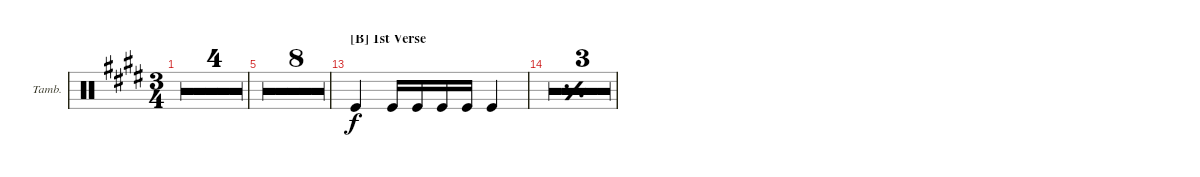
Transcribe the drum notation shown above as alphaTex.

\defaultSystemsLayout 4
\bracketExtendMode groupsimilarinstruments
\firstSystemTrackNameOrientation horizontal
\otherSystemsTrackNameOrientation horizontal
\track ("Tambourine" "Tamb.") {multiBarRest instrument percussion}
\staff {score}
\articulation defaults
\ts (3 4)
\tempo 165
\clef neutral
\simile firstofdouble
\ks e
|
\simile secondofdouble
|
\simile firstofdouble
|
\simile secondofdouble
|
\tempo 162
\simile firstofdouble
|
\simile secondofdouble
|
\simile firstofdouble
|
\simile secondofdouble
|
\simile firstofdouble
|
\simile secondofdouble
|
\simile firstofdouble
|
\simile secondofdouble
|
\section ("B" "1st Verse")
\simile none "Kick (hit)".4 "Kick (hit)".16 "Kick (hit)".16 "Kick (hit)".16 "Kick (hit)".16 "Kick (hit)".4
|
\simile simple
|
\simile firstofdouble
|
\simile secondofdouble
